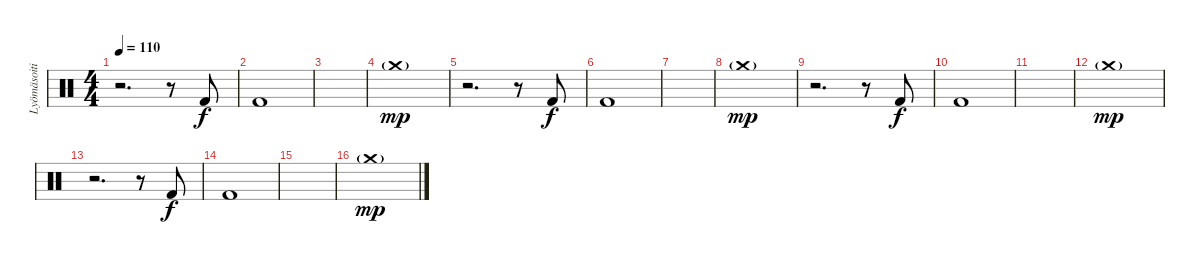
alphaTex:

\track ("Lyömäsoitin" "Lyömäsoiti") {instrument percussion}
\staff {score}
\articulation defaults
\ts (4 4)
\tempo 110
\clef neutral
\ks c
r.2{d dy mp} r.8 "Kick (hit) 2".8{dy f} |
"Kick (hit) 2".1 |
|
"Crash medium (hit)"{g}.1{dy mp} |
r.2{d} r.8 "Kick (hit) 2".8{dy f} |
"Kick (hit) 2".1 |
|
"Crash medium (hit)"{g}.1{dy mp} |
r.2{d} r.8 "Kick (hit) 2".8{dy f} |
"Kick (hit) 2".1 |
|
"Crash medium (hit)"{g}.1{dy mp} |
r.2{d} r.8 "Kick (hit) 2".8{dy f} |
"Kick (hit) 2".1 |
|
"Crash medium (hit)"{g}.1{dy mp}
